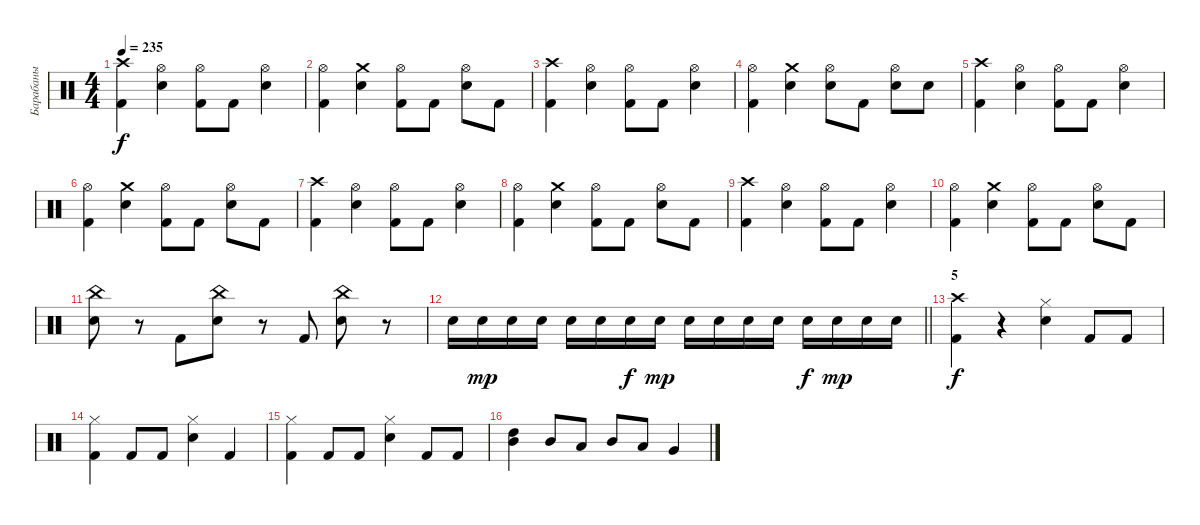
\track ("Барабаны" "Барабаны") {instrument percussion}
\staff {score}
\articulation defaults
\ts (4 4)
\tempo 235
\clef neutral
\ks c
("Crash high (hit)" "Kick (hit) 2").4{dy f} ("Hi-Hat (open)" "Electric Snare (hit)").4 ("Hi-Hat (open)" "Kick (hit) 2").8 "Kick (hit) 2".8 ("Electric Snare (hit)" "Hi-Hat (open)").4 |
("Hi-Hat (open)" "Kick (hit) 2").4 ("Crash medium (hit)" "Electric Snare (hit)").4 ("Hi-Hat (open)" "Kick (hit) 2").8 "Kick (hit) 2".8 ("Electric Snare (hit)" "Hi-Hat (open)").8 "Kick (hit) 2".8 |
("Crash high (hit)" "Kick (hit) 2").4 ("Electric Snare (hit)" "Hi-Hat (open)").4 ("Kick (hit) 2" "Hi-Hat (open)").8 "Kick (hit) 2".8 ("Electric Snare (hit)" "Hi-Hat (open)").4 |
("Hi-Hat (open)" "Kick (hit) 2").4 ("Crash medium (hit)" "Electric Snare (hit)").4 ("Hi-Hat (open)" "Electric Snare (hit)").8 "Kick (hit) 2".8 ("Electric Snare (hit)" "Hi-Hat (open)").8 "Electric Snare (hit)".8 |
("Crash high (hit)" "Kick (hit) 2").4 ("Electric Snare (hit)" "Hi-Hat (open)").4 ("Kick (hit) 2" "Hi-Hat (open)").8 "Kick (hit) 2".8 ("Electric Snare (hit)" "Hi-Hat (open)").4 |
("Hi-Hat (open)" "Kick (hit) 2").4 ("Crash medium (hit)" "Electric Snare (hit)").4 ("Hi-Hat (open)" "Kick (hit) 2").8 "Kick (hit) 2".8 ("Electric Snare (hit)" "Hi-Hat (open)").8 "Kick (hit) 2".8 |
("Crash high (hit)" "Kick (hit) 2").4 ("Electric Snare (hit)" "Hi-Hat (open)").4 ("Kick (hit) 2" "Hi-Hat (open)").8 "Kick (hit) 2".8 ("Electric Snare (hit)" "Hi-Hat (open)").4 |
("Hi-Hat (open)" "Kick (hit) 2").4 ("Crash medium (hit)" "Electric Snare (hit)").4 ("Kick (hit) 2" "Hi-Hat (open)").8 "Kick (hit) 2".8 ("Hi-Hat (open)" "Electric Snare (hit)").8 "Kick (hit) 2".8 |
("Crash high (hit)" "Kick (hit) 2").4 ("Electric Snare (hit)" "Hi-Hat (open)").4 ("Hi-Hat (open)" "Kick (hit) 2").8 "Kick (hit) 2".8 ("Hi-Hat (open)" "Electric Snare (hit)").4 |
("Hi-Hat (open)" "Kick (hit) 2").4 ("Crash medium (hit)" "Electric Snare (hit)").4 ("Hi-Hat (open)" "Kick (hit) 2").8 "Kick (hit) 2".8 ("Electric Snare (hit)" "Hi-Hat (open)").8 "Kick (hit) 2".8 |
("Electric Snare (hit)" "China (hit)").8 r.8 "Kick (hit) 2".8 ("China (hit)" "Electric Snare (hit)").8 r.8 "Kick (hit) 2".8 ("Electric Snare (hit)" "China (hit)").8 r.8 |
\barLineRight lightlight "Electric Snare (hit)".16 "Electric Snare (hit)".16{dy mp} "Electric Snare (hit)".16 "Electric Snare (hit)".16 "Electric Snare (hit)".16 "Electric Snare (hit)".16 "Electric Snare (hit)".16{dy f} "Electric Snare (hit)".16{dy mp} "Electric Snare (hit)".16 "Electric Snare (hit)".16 "Electric Snare (hit)".16 "Electric Snare (hit)".16 "Electric Snare (hit)".16{dy f} "Electric Snare (hit)".16{dy mp} "Electric Snare (hit)".16 "Electric Snare (hit)".16
|
\section ("" "5")
("Kick (hit) 2" "Crash high (hit)").4{dy f} r.4 ("Hi-Hat (closed)" "Electric Snare (hit)").4 "Kick (hit) 2".8 "Kick (hit) 2".8 |
("Hi-Hat (closed)" "Kick (hit) 2").4 "Kick (hit) 2".8 "Kick (hit) 2".8 ("Hi-Hat (closed)" "Electric Snare (hit)").4 "Kick (hit) 2".4 |
("Kick (hit) 2" "Hi-Hat (closed)").4 "Kick (hit) 2".8 "Kick (hit) 2".8 ("Electric Snare (hit)" "Hi-Hat (closed)").4 "Kick (hit) 2".8 "Kick (hit) 2".8 |
("Mid Tom (hit)" "High Tom (hit)").4 "Mid Tom (hit)".8 "Low Tom (hit)".8 "Mid Tom (hit)".8 "Low Tom (hit)".8 "Very Low Tom (hit)".4
